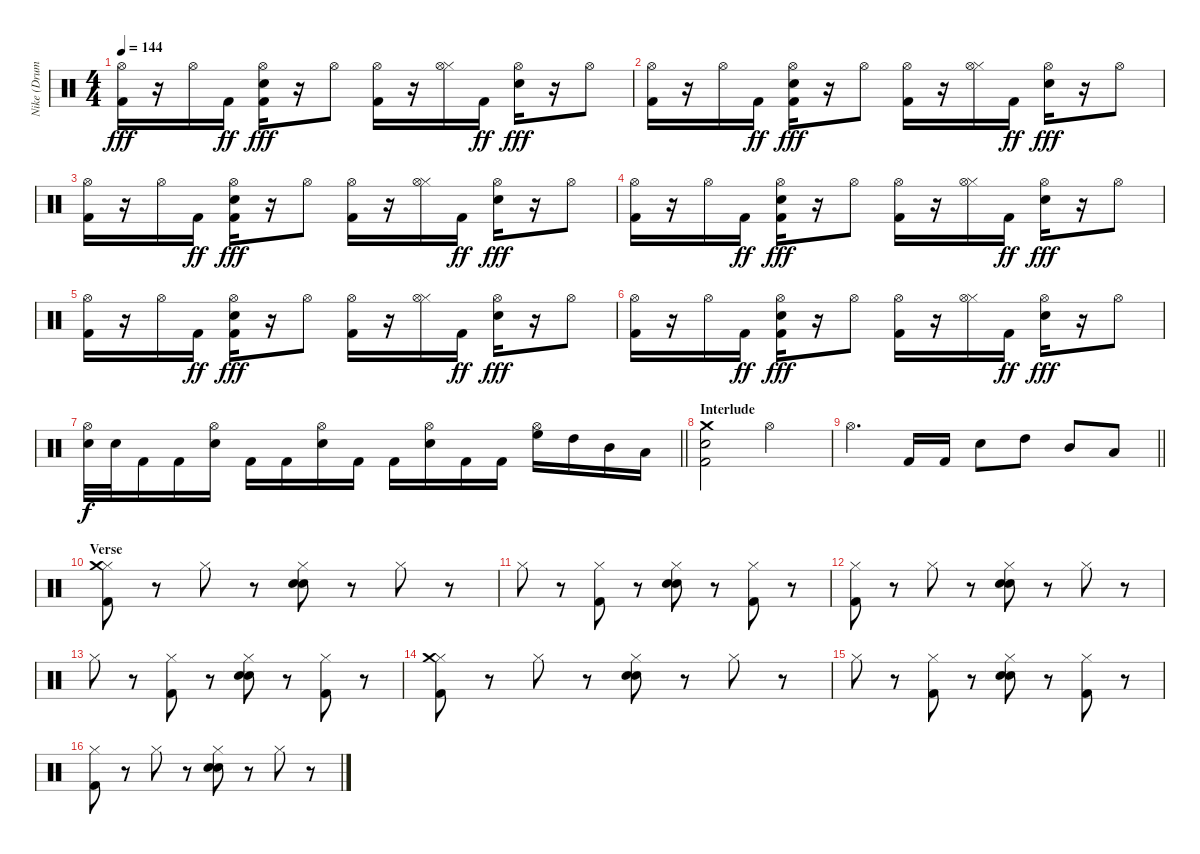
\track ("Nike (Drums)" "Nike (Drum") {instrument percussion}
\staff {score}
\articulation defaults
\ts (4 4)
\tempo 144
\clef neutral
\ks c
("Kick (hit) 2" "Hi-Hat (open)").16{dy fff} r.16 "Hi-Hat (open)".16 "Kick (hit) 2".16{dy ff} ("Kick (hit) 2" "Electric Snare (hit)" "Hi-Hat (open)").16{dy fff} r.16 "Hi-Hat (open)".8 ("Kick (hit) 2" "Hi-Hat (open)").16 r.16 ("Hi-Hat (closed)" "Hi-Hat (open)").16 "Kick (hit) 2".16{dy ff} ("Electric Snare (hit)" "Hi-Hat (open)").16{dy fff} r.16 "Hi-Hat (open)".8 |
("Kick (hit) 2" "Hi-Hat (open)").16 r.16 "Hi-Hat (open)".16 "Kick (hit) 2".16{dy ff} ("Kick (hit) 2" "Electric Snare (hit)" "Hi-Hat (open)").16{dy fff} r.16 "Hi-Hat (open)".8 ("Kick (hit) 2" "Hi-Hat (open)").16 r.16 ("Hi-Hat (closed)" "Hi-Hat (open)").16 "Kick (hit) 2".16{dy ff} ("Electric Snare (hit)" "Hi-Hat (open)").16{dy fff} r.16 "Hi-Hat (open)".8 |
("Kick (hit) 2" "Hi-Hat (open)").16 r.16 "Hi-Hat (open)".16 "Kick (hit) 2".16{dy ff} ("Kick (hit) 2" "Electric Snare (hit)" "Hi-Hat (open)").16{dy fff} r.16 "Hi-Hat (open)".8 ("Kick (hit) 2" "Hi-Hat (open)").16 r.16 ("Hi-Hat (closed)" "Hi-Hat (open)").16 "Kick (hit) 2".16{dy ff} ("Electric Snare (hit)" "Hi-Hat (open)").16{dy fff} r.16 "Hi-Hat (open)".8 |
("Kick (hit) 2" "Hi-Hat (open)").16 r.16 "Hi-Hat (open)".16 "Kick (hit) 2".16{dy ff} ("Kick (hit) 2" "Electric Snare (hit)" "Hi-Hat (open)").16{dy fff} r.16 "Hi-Hat (open)".8 ("Kick (hit) 2" "Hi-Hat (open)").16 r.16 ("Hi-Hat (closed)" "Hi-Hat (open)").16 "Kick (hit) 2".16{dy ff} ("Electric Snare (hit)" "Hi-Hat (open)").16{dy fff} r.16 "Hi-Hat (open)".8 |
("Kick (hit) 2" "Hi-Hat (open)").16 r.16 "Hi-Hat (open)".16 "Kick (hit) 2".16{dy ff} ("Kick (hit) 2" "Electric Snare (hit)" "Hi-Hat (open)").16{dy fff} r.16 "Hi-Hat (open)".8 ("Kick (hit) 2" "Hi-Hat (open)").16 r.16 ("Hi-Hat (closed)" "Hi-Hat (open)").16 "Kick (hit) 2".16{dy ff} ("Electric Snare (hit)" "Hi-Hat (open)").16{dy fff} r.16 "Hi-Hat (open)".8 |
("Kick (hit) 2" "Hi-Hat (open)").16 r.16 "Hi-Hat (open)".16 "Kick (hit) 2".16{dy ff} ("Kick (hit) 2" "Electric Snare (hit)" "Hi-Hat (open)").16{dy fff} r.16 "Hi-Hat (open)".8 ("Kick (hit) 2" "Hi-Hat (open)").16 r.16 ("Hi-Hat (closed)" "Hi-Hat (open)").16 "Kick (hit) 2".16{dy ff} ("Electric Snare (hit)" "Hi-Hat (open)").16{dy fff} r.16 "Hi-Hat (open)".8 |
\barLineRight lightlight
("Electric Snare (hit)" "Hi-Hat (open)").32{dy f} "Electric Snare (hit)".32 "Kick (hit) 2".16 "Kick (hit) 2".16 ("Electric Snare (hit)" "Hi-Hat (open)").16 "Kick (hit) 2".16 "Kick (hit) 2".16 ("Electric Snare (hit)" "Hi-Hat (open)").16 "Kick (hit) 2".16 "Kick (hit) 2".16 ("Electric Snare (hit)" "Hi-Hat (open)").16 "Kick (hit) 2".16 "Kick (hit) 2".16 ("High Floor Tom (hit)" "Hi-Hat (open)").16 "High Tom (hit)".16 "Mid Tom (hit)".16 "Low Tom (hit)".16 |
\section ("" "Interlude")
("Electric Snare (hit)" "Crash medium (hit)" "Kick (hit) 2").2 "Hi-Hat (open)".2 |
\barLineRight lightlight "Hi-Hat (open)".4{d} "Kick (hit) 2".16 "Kick (hit) 2".16 "Electric Snare (hit)".8 "High Tom (hit)".8 "Mid Tom (hit)".8 "Low Tom (hit)".8
|
\section ("" "Verse")
("Kick (hit) 2" "Hi-Hat (closed)" "Crash medium (hit)").8 r.8 "Hi-Hat (closed)".8 r.8 ("Electric Snare (hit)" "Hi-Hat (closed)" "Electric Snare (hit)").8 r.8 "Hi-Hat (closed)".8 r.8 |
"Hi-Hat (closed)".8 r.8 ("Hi-Hat (closed)" "Kick (hit) 2").8 r.8 ("Electric Snare (hit)" "Hi-Hat (closed)" "Electric Snare (hit)").8 r.8 ("Hi-Hat (closed)" "Kick (hit) 2").8 r.8 |
("Kick (hit) 2" "Hi-Hat (closed)").8 r.8 "Hi-Hat (closed)".8 r.8 ("Electric Snare (hit)" "Hi-Hat (closed)" "Electric Snare (hit)").8 r.8 "Hi-Hat (closed)".8 r.8 |
"Hi-Hat (closed)".8 r.8 ("Hi-Hat (closed)" "Kick (hit) 2").8 r.8 ("Electric Snare (hit)" "Hi-Hat (closed)" "Electric Snare (hit)").8 r.8 ("Hi-Hat (closed)" "Kick (hit) 2").8 r.8 |
("Kick (hit) 2" "Hi-Hat (closed)" "Crash medium (hit)").8 r.8 "Hi-Hat (closed)".8 r.8 ("Electric Snare (hit)" "Hi-Hat (closed)" "Electric Snare (hit)").8 r.8 "Hi-Hat (closed)".8 r.8 |
"Hi-Hat (closed)".8 r.8 ("Hi-Hat (closed)" "Kick (hit) 2").8 r.8 ("Electric Snare (hit)" "Hi-Hat (closed)" "Electric Snare (hit)").8 r.8 ("Hi-Hat (closed)" "Kick (hit) 2").8 r.8 |
("Kick (hit) 2" "Hi-Hat (closed)").8 r.8 "Hi-Hat (closed)".8 r.8 ("Electric Snare (hit)" "Hi-Hat (closed)" "Electric Snare (hit)").8 r.8 "Hi-Hat (closed)".8 r.8
